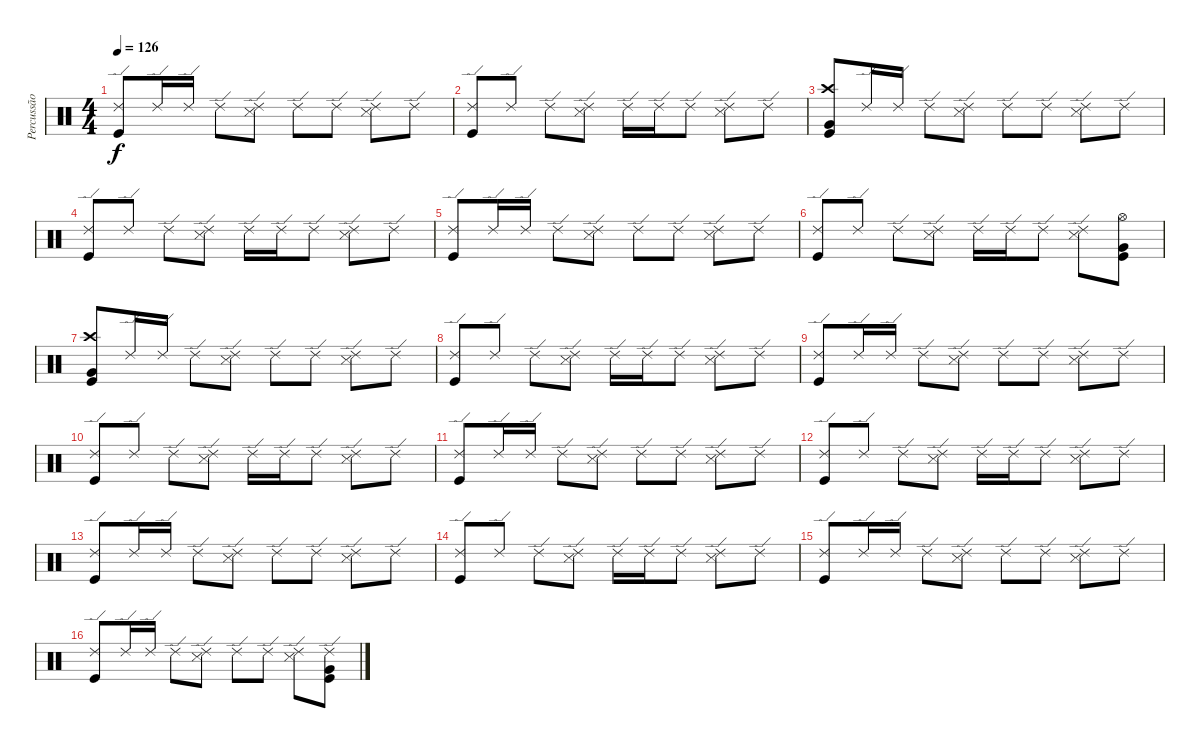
\track ("Percussão" "Percussão") {instrument percussion}
\staff {score}
\articulation defaults
\ts (4 4)
\tempo 126
\clef neutral
\ks c
("Ride (edge) 2" "Kick (hit)").8{dy f} "Ride (edge) 2".16 "Ride (edge) 2".16 "Ride (edge) 2".8 ("Ride (edge) 2" "Snare (side stick) 3").8 "Ride (edge) 2".8 "Ride (edge) 2".8 ("Ride (edge) 2" "Snare (side stick) 3").8 "Ride (edge) 2".8 |
("Ride (edge) 2" "Kick (hit)").8 "Ride (edge) 2".8 "Ride (edge) 2".8 ("Ride (edge) 2" "Snare (side stick) 3").8 "Ride (edge) 2".16 "Ride (edge) 2".16 "Ride (edge) 2".8 ("Ride (edge) 2" "Snare (side stick) 3").8 "Ride (edge) 2".8 |
("Crash high (hit)" "Very Low Tom (hit)" "Kick (hit)").8 "Ride (edge) 2".16 "Ride (edge) 2".16 "Ride (edge) 2".8 ("Ride (edge) 2" "Snare (side stick) 3").8 "Ride (edge) 2".8 "Ride (edge) 2".8 ("Ride (edge) 2" "Snare (side stick) 3").8 "Ride (edge) 2".8 |
("Ride (edge) 2" "Kick (hit)").8 "Ride (edge) 2".8 "Ride (edge) 2".8 ("Ride (edge) 2" "Snare (side stick) 3").8 "Ride (edge) 2".16 "Ride (edge) 2".16 "Ride (edge) 2".8 ("Ride (edge) 2" "Snare (side stick) 3").8 "Ride (edge) 2".8 |
("Ride (edge) 2" "Kick (hit)").8 "Ride (edge) 2".16 "Ride (edge) 2".16 "Ride (edge) 2".8 ("Ride (edge) 2" "Snare (side stick) 3").8 "Ride (edge) 2".8 "Ride (edge) 2".8 ("Ride (edge) 2" "Snare (side stick) 3").8 "Ride (edge) 2".8 |
("Ride (edge) 2" "Kick (hit)").8 "Ride (edge) 2".8 "Ride (edge) 2".8 ("Ride (edge) 2" "Snare (side stick) 3").8 "Ride (edge) 2".16 "Ride (edge) 2".16 "Ride (edge) 2".8 ("Ride (edge) 2" "Snare (side stick) 3").8 ("Hi-Hat (open)" "Very Low Tom (hit)" "Kick (hit)").8 |
("Crash high (hit)" "Very Low Tom (hit)" "Kick (hit)").8 "Ride (edge) 2".16 "Ride (edge) 2".16 "Ride (edge) 2".8 ("Ride (edge) 2" "Snare (side stick) 3").8 "Ride (edge) 2".8 "Ride (edge) 2".8 ("Ride (edge) 2" "Snare (side stick) 3").8 "Ride (edge) 2".8 |
("Ride (edge) 2" "Kick (hit)").8 "Ride (edge) 2".8 "Ride (edge) 2".8 ("Ride (edge) 2" "Snare (side stick) 3").8 "Ride (edge) 2".16 "Ride (edge) 2".16 "Ride (edge) 2".8 ("Ride (edge) 2" "Snare (side stick) 3").8 "Ride (edge) 2".8 |
("Ride (edge) 2" "Kick (hit)").8 "Ride (edge) 2".16 "Ride (edge) 2".16 "Ride (edge) 2".8 ("Ride (edge) 2" "Snare (side stick) 3").8 "Ride (edge) 2".8 "Ride (edge) 2".8 ("Ride (edge) 2" "Snare (side stick) 3").8 "Ride (edge) 2".8 |
("Ride (edge) 2" "Kick (hit)").8 "Ride (edge) 2".8 "Ride (edge) 2".8 ("Ride (edge) 2" "Snare (side stick) 3").8 "Ride (edge) 2".16 "Ride (edge) 2".16 "Ride (edge) 2".8 ("Ride (edge) 2" "Snare (side stick) 3").8 "Ride (edge) 2".8 |
("Ride (edge) 2" "Kick (hit)").8 "Ride (edge) 2".16 "Ride (edge) 2".16 "Ride (edge) 2".8 ("Ride (edge) 2" "Snare (side stick) 3").8 "Ride (edge) 2".8 "Ride (edge) 2".8 ("Ride (edge) 2" "Snare (side stick) 3").8 "Ride (edge) 2".8 |
("Ride (edge) 2" "Kick (hit)").8 "Ride (edge) 2".8 "Ride (edge) 2".8 ("Ride (edge) 2" "Snare (side stick) 3").8 "Ride (edge) 2".16 "Ride (edge) 2".16 "Ride (edge) 2".8 ("Ride (edge) 2" "Snare (side stick) 3").8 "Ride (edge) 2".8 |
("Ride (edge) 2" "Kick (hit)").8 "Ride (edge) 2".16 "Ride (edge) 2".16 "Ride (edge) 2".8 ("Ride (edge) 2" "Snare (side stick) 3").8 "Ride (edge) 2".8 "Ride (edge) 2".8 ("Ride (edge) 2" "Snare (side stick) 3").8 "Ride (edge) 2".8 |
("Ride (edge) 2" "Kick (hit)").8 "Ride (edge) 2".8 "Ride (edge) 2".8 ("Ride (edge) 2" "Snare (side stick) 3").8 "Ride (edge) 2".16 "Ride (edge) 2".16 "Ride (edge) 2".8 ("Ride (edge) 2" "Snare (side stick) 3").8 "Ride (edge) 2".8 |
("Ride (edge) 2" "Kick (hit)").8 "Ride (edge) 2".16 "Ride (edge) 2".16 "Ride (edge) 2".8 ("Ride (edge) 2" "Snare (side stick) 3").8 "Ride (edge) 2".8 "Ride (edge) 2".8 ("Ride (edge) 2" "Snare (side stick) 3").8 "Ride (edge) 2".8 |
("Ride (edge) 2" "Kick (hit)").8 "Ride (edge) 2".16 "Ride (edge) 2".16 "Ride (edge) 2".8 ("Ride (edge) 2" "Snare (side stick) 3").8 "Ride (edge) 2".8 "Ride (edge) 2".8 ("Ride (edge) 2" "Snare (side stick) 3").8 ("Ride (edge) 2" "Very Low Tom (hit)" "Kick (hit)").8
